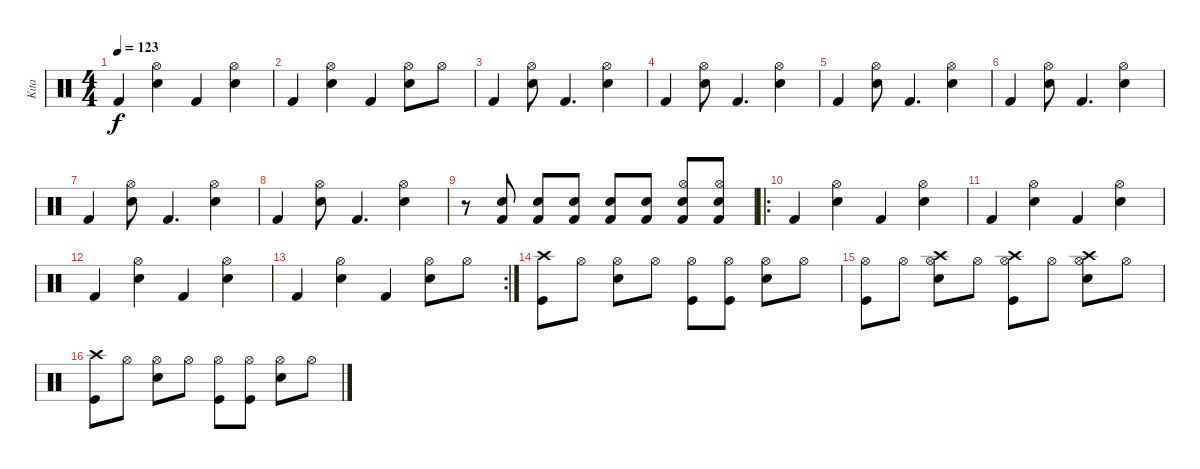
\track ("Kita" "Kita") {instrument percussion}
\staff {score}
\articulation defaults
\ts (4 4)
\tempo 123
\clef neutral
\ks c "Kick (hit) 2".4{dy f}
("Hi-Hat (open)" "Snare (hit) 2").4 "Kick (hit) 2".4 ("Hi-Hat (open)" "Snare (hit) 2").4 |
"Kick (hit) 2".4 ("Hi-Hat (open)" "Snare (hit) 2").4 "Kick (hit) 2".4 ("Hi-Hat (open)" "Snare (hit) 2").8 "Hi-Hat (open)".8 |
"Kick (hit) 2".4 ("Hi-Hat (open)" "Snare (hit) 2").8 "Kick (hit) 2".4{d} ("Hi-Hat (open)" "Snare (hit) 2").4 |
"Kick (hit) 2".4 ("Hi-Hat (open)" "Snare (hit) 2").8 "Kick (hit) 2".4{d} ("Hi-Hat (open)" "Snare (hit) 2").4 |
"Kick (hit) 2".4 ("Hi-Hat (open)" "Snare (hit) 2").8 "Kick (hit) 2".4{d} ("Hi-Hat (open)" "Snare (hit) 2").4 |
"Kick (hit) 2".4 ("Hi-Hat (open)" "Snare (hit) 2").8 "Kick (hit) 2".4{d} ("Hi-Hat (open)" "Snare (hit) 2").4 |
"Kick (hit) 2".4 ("Hi-Hat (open)" "Snare (hit) 2").8 "Kick (hit) 2".4{d} ("Hi-Hat (open)" "Snare (hit) 2").4 |
"Kick (hit) 2".4 ("Hi-Hat (open)" "Snare (hit) 2").8 "Kick (hit) 2".4{d} ("Hi-Hat (open)" "Snare (hit) 2").4 |
r.8 ("Snare (hit) 2" "Kick (hit) 2").8 ("Snare (hit) 2" "Kick (hit) 2").8 ("Snare (hit) 2" "Kick (hit) 2").8 ("Snare (hit) 2" "Kick (hit) 2").8 ("Snare (hit) 2" "Kick (hit) 2").8 ("Snare (hit) 2" "Kick (hit) 2" "Hi-Hat (open)").8 ("Snare (hit) 2" "Kick (hit) 2" "Hi-Hat (open)").8 |
\ro "Kick (hit) 2".4
("Hi-Hat (open)" "Snare (hit) 2").4 "Kick (hit) 2".4 ("Hi-Hat (open)" "Snare (hit) 2").4 |
"Kick (hit) 2".4 ("Hi-Hat (open)" "Snare (hit) 2").4 "Kick (hit) 2".4 ("Hi-Hat (open)" "Snare (hit) 2").4 |
"Kick (hit) 2".4 ("Hi-Hat (open)" "Snare (hit) 2").4 "Kick (hit) 2".4 ("Hi-Hat (open)" "Snare (hit) 2").4 |
\rc 2 "Kick (hit) 2".4
("Hi-Hat (open)" "Snare (hit) 2").4 "Kick (hit) 2".4 ("Hi-Hat (open)" "Snare (hit) 2").8 "Hi-Hat (open)".8 |
("Crash high (hit)" "Kick (hit)").8 "Hi-Hat (open)".8 ("Hi-Hat (open)" "Snare (hit) 2").8 "Hi-Hat (open)".8 ("Hi-Hat (open)" "Kick (hit)").8 ("Hi-Hat (open)" "Kick (hit)").8 ("Hi-Hat (open)" "Snare (hit) 2").8 "Hi-Hat (open)".8 |
("Hi-Hat (open)" "Kick (hit)").8 "Hi-Hat (open)".8 ("Hi-Hat (open)" "Snare (hit) 2" "Crash high (hit)").8 "Hi-Hat (open)".8 ("Hi-Hat (open)" "Kick (hit)" "Crash high (hit)").8 "Hi-Hat (open)".8 ("Hi-Hat (open)" "Snare (hit) 2" "Crash high (hit)").8 "Hi-Hat (open)".8 |
("Crash high (hit)" "Kick (hit)").8 "Hi-Hat (open)".8 ("Hi-Hat (open)" "Snare (hit) 2").8 "Hi-Hat (open)".8 ("Hi-Hat (open)" "Kick (hit)").8 ("Hi-Hat (open)" "Kick (hit)").8 ("Hi-Hat (open)" "Snare (hit) 2").8 "Hi-Hat (open)".8
